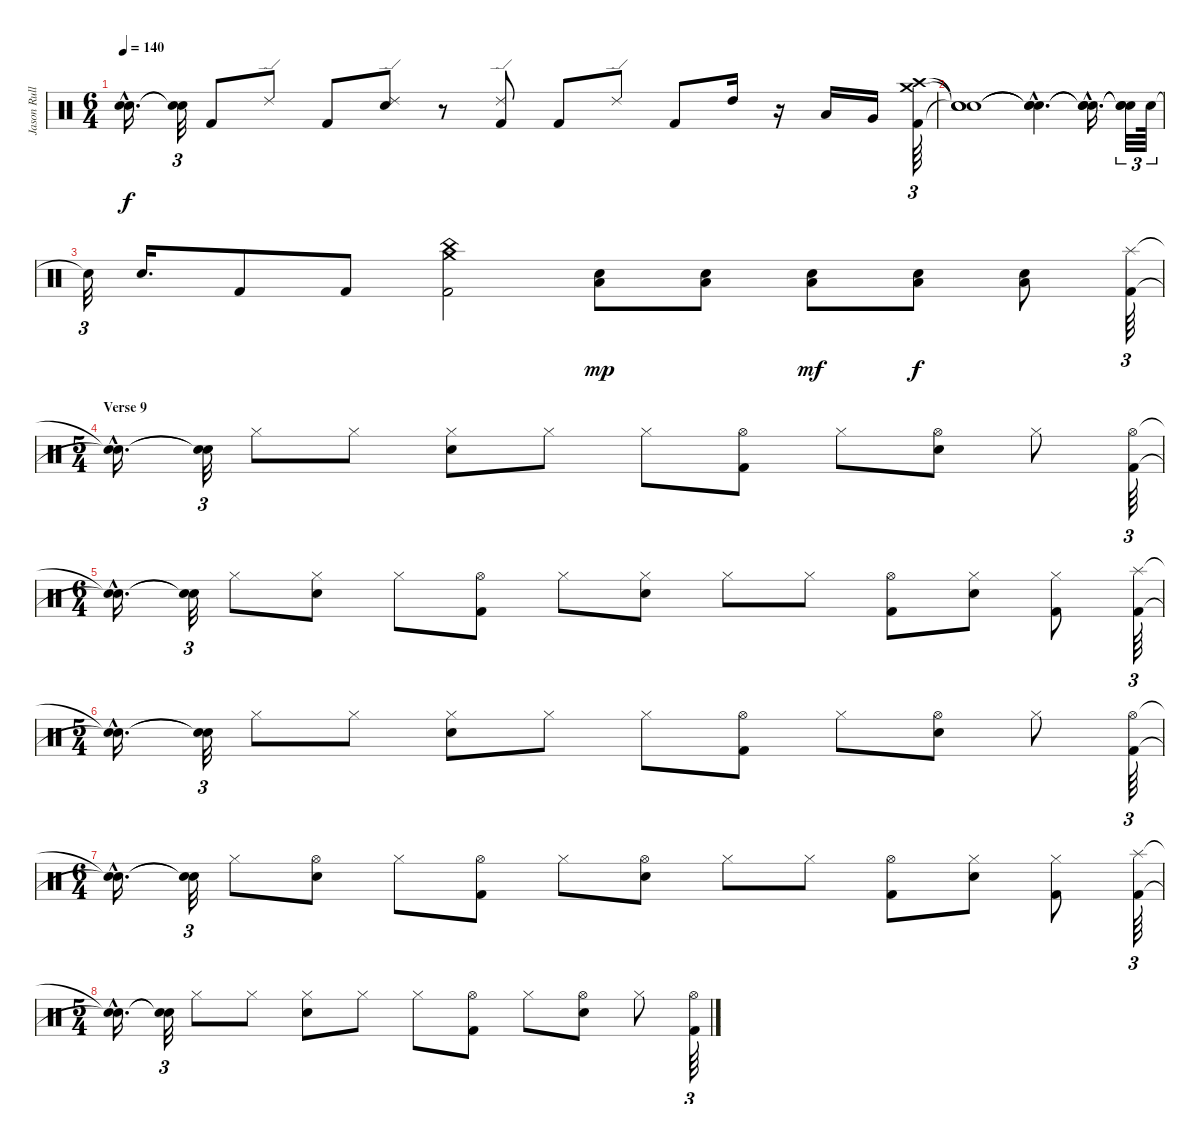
\track ("Jason Rullo" "Jason Rull") {instrument percussion}
\staff {score}
\articulation defaults
\ts (6 4)
\tempo 140
\clef neutral
\ks c
("Snare (hit)"{hac t} "Snare (hit)"{hac t}).16{d dy f} ("Snare (hit)"{t} "Snare (hit)"{t}).32{tu (3 2)} "Kick (hit) 2".8 "Ride (edge) 2".8 "Kick (hit) 2".8 ("Ride (edge) 2" "Electric Snare (hit)").8 r.8 ("Ride (edge) 2" "Kick (hit) 2").8 "Kick (hit) 2".8 "Ride (edge) 2".8 "Kick (hit) 2".8 "High Tom (hit)".16 r.16 "Low Tom (hit)".16 "Very Low Tom (hit)".16 ("Crash high (hit)" "Crash medium (hit)" "Kick (hit) 2").64{tu (3 2)} |
("Snare (hit)"{t} "Snare (hit)"{t} "Snare (hit)"{t}).1 ("Snare (hit)"{hac t} "Snare (hit)"{hac t} "Snare (hit)"{hac t}).4{d} ("Snare (hit)"{hac t} "Snare (hit)"{hac t} "Snare (hit)"{hac t}).16{d} ("Snare (hit)"{t} "Snare (hit)"{t} "Snare (hit)"{t}).32{tu (3 2)} "Electric Snare (hit)".64{tu (3 2)} |
"Snare (hit)"{t}.32{tu (3 2)} "Electric Snare (hit)".16{d} "Kick (hit) 2".8 "Kick (hit) 2".8 ("China (hit)" "Crash medium (hit)" "Kick (hit) 2").2 ("Electric Snare (hit)" "Low Tom (hit)").8{dy mp} ("Electric Snare (hit)" "Low Tom (hit)").8 ("Electric Snare (hit)" "Low Tom (hit)").8{dy mf} ("Electric Snare (hit)" "Low Tom (hit)").8{dy f} ("Low Tom (hit)" "Electric Snare (hit)").8 ("Splash (hit)" "Kick (hit) 2").64{tu (3 2)} |
\ts (5 4)
\section ("" "Verse 9")
("Snare (hit)"{hac t} "Snare (hit)"{hac t}).16{d} ("Snare (hit)"{t} "Snare (hit)"{t}).32{tu (3 2)} "Hi-Hat (closed)".8 "Hi-Hat (closed)".8 ("Hi-Hat (closed)" "Electric Snare (hit)").8 "Hi-Hat (closed)".8 "Hi-Hat (closed)".8 ("Hi-Hat (open)" "Kick (hit) 2").8 "Hi-Hat (closed)".8 ("Hi-Hat (open)" "Electric Snare (hit)").8 "Hi-Hat (closed)".8 ("Hi-Hat (open)" "Kick (hit) 2").64{tu (3 2)} |
\ts (6 4)
("Snare (hit)"{hac t} "Snare (hit)"{hac t}).16{d} ("Snare (hit)"{t} "Snare (hit)"{t}).32{tu (3 2)} "Hi-Hat (closed)".8 ("Hi-Hat (closed)" "Electric Snare (hit)").8 "Hi-Hat (closed)".8 ("Hi-Hat (open)" "Kick (hit) 2").8 "Hi-Hat (closed)".8 ("Hi-Hat (closed)" "Electric Snare (hit)").8 "Hi-Hat (closed)".8 "Hi-Hat (closed)".8 ("Hi-Hat (open)" "Kick (hit) 2").8 ("Hi-Hat (closed)" "Electric Snare (hit)").8 ("Hi-Hat (closed)" "Kick (hit) 2").8 ("Splash (hit)" "Kick (hit) 2").64{tu (3 2)} |
\ts (5 4)
("Snare (hit)"{hac t} "Snare (hit)"{hac t}).16{d} ("Snare (hit)"{t} "Snare (hit)"{t}).32{tu (3 2)} "Hi-Hat (closed)".8 "Hi-Hat (closed)".8 ("Hi-Hat (closed)" "Electric Snare (hit)").8 "Hi-Hat (closed)".8 "Hi-Hat (closed)".8 ("Hi-Hat (open)" "Kick (hit) 2").8 "Hi-Hat (closed)".8 ("Hi-Hat (open)" "Electric Snare (hit)").8 "Hi-Hat (closed)".8 ("Hi-Hat (open)" "Kick (hit) 2").64{tu (3 2)} |
\ts (6 4)
("Snare (hit)"{hac t} "Snare (hit)"{hac t}).16{d} ("Snare (hit)"{t} "Snare (hit)"{t}).32{tu (3 2)} "Hi-Hat (closed)".8 ("Hi-Hat (open)" "Electric Snare (hit)").8 "Hi-Hat (closed)".8 ("Hi-Hat (open)" "Kick (hit) 2").8 "Hi-Hat (closed)".8 ("Hi-Hat (open)" "Electric Snare (hit)").8 "Hi-Hat (closed)".8 "Hi-Hat (closed)".8 ("Hi-Hat (open)" "Kick (hit) 2").8 ("Hi-Hat (closed)" "Electric Snare (hit)").8 ("Hi-Hat (closed)" "Kick (hit) 2").8 ("Splash (hit)" "Kick (hit) 2").64{tu (3 2)} |
\ts (5 4)
("Snare (hit)"{hac t} "Snare (hit)"{hac t}).16{d} ("Snare (hit)"{t} "Snare (hit)"{t}).32{tu (3 2)} "Hi-Hat (closed)".8 "Hi-Hat (closed)".8 ("Hi-Hat (closed)" "Electric Snare (hit)").8 "Hi-Hat (closed)".8 "Hi-Hat (closed)".8 ("Hi-Hat (open)" "Kick (hit) 2").8 "Hi-Hat (closed)".8 ("Hi-Hat (open)" "Electric Snare (hit)").8 "Hi-Hat (closed)".8 ("Hi-Hat (open)" "Kick (hit) 2").64{tu (3 2)}
